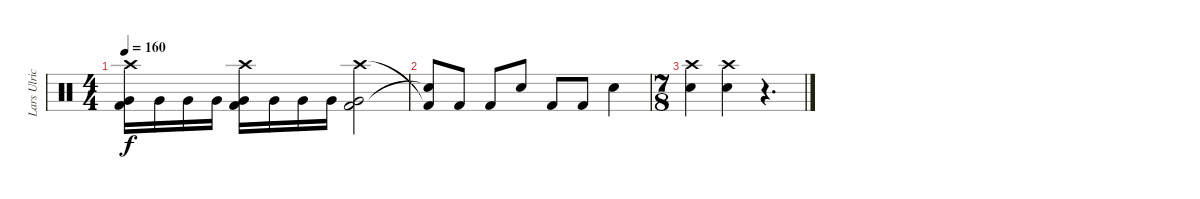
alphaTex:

\track ("Lars Ulrich" "Lars Ulric") {instrument percussion}
\staff {score}
\articulation defaults
\ts (4 4)
\tempo 160
\clef neutral
\ks c
("Crash high (hit)" "Kick (hit) 2" "Very Low Tom (hit)").16{dy f} "Very Low Tom (hit)".16 "Very Low Tom (hit)".16 "Very Low Tom (hit)".16 ("Crash high (hit)" "Kick (hit) 2" "Very Low Tom (hit)").16 "Very Low Tom (hit)".16 "Very Low Tom (hit)".16 "Very Low Tom (hit)".16 ("Crash high (hit)" "Kick (hit) 2" "Very Low Tom (hit)").2 |
("Kick (hit) 2"{t} "Snare (hit)"{t}).8 "Kick (hit) 2".8 "Kick (hit) 2".8 "Electric Snare (hit)".8 "Kick (hit) 2".8 "Kick (hit) 2".8 "Electric Snare (hit)".4 |
\ts (7 8)
("Electric Snare (hit)" "Crash high (hit)").4 ("Electric Snare (hit)" "Crash high (hit)").4 r.4{d}
